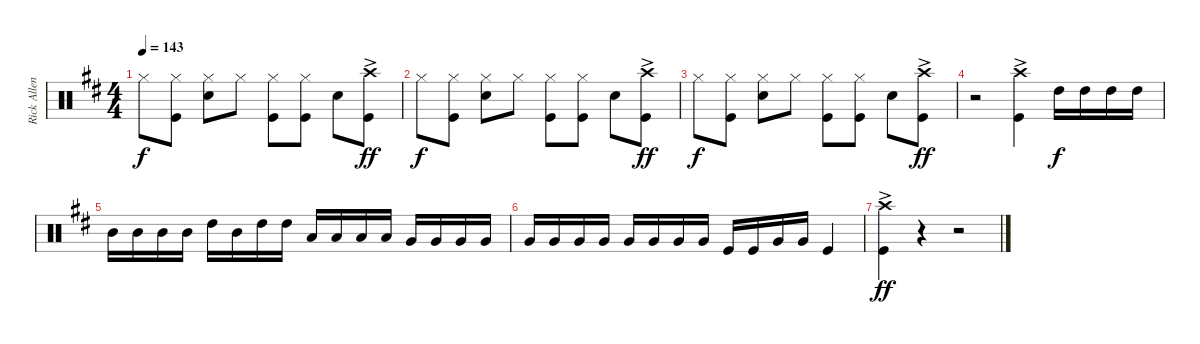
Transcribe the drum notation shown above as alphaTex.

\track ("Rick Allen" "Rick Allen") {instrument percussion}
\staff {score}
\articulation defaults
\ts (4 4)
\tempo 143
\clef neutral
\ks d "Hi-Hat (closed)".8{dy f}
("Hi-Hat (closed)" "Kick (hit)").8 ("Hi-Hat (closed)" "Snare (hit) 2").8 "Hi-Hat (closed)".8 ("Hi-Hat (closed)" "Kick (hit)").8 ("Hi-Hat (closed)" "Kick (hit)").8 "Snare (hit) 2".8 ("Crash high (hit)"{ac} "Kick (hit)").8{dy ff} |
"Hi-Hat (closed)".8{dy f} ("Hi-Hat (closed)" "Kick (hit)").8 ("Hi-Hat (closed)" "Snare (hit) 2").8 "Hi-Hat (closed)".8 ("Hi-Hat (closed)" "Kick (hit)").8 ("Hi-Hat (closed)" "Kick (hit)").8 "Snare (hit) 2".8 ("Crash high (hit)"{ac} "Kick (hit)").8{dy ff} |
"Hi-Hat (closed)".8{dy f} ("Hi-Hat (closed)" "Kick (hit)").8 ("Hi-Hat (closed)" "Snare (hit) 2").8 "Hi-Hat (closed)".8 ("Hi-Hat (closed)" "Kick (hit)").8 ("Hi-Hat (closed)" "Kick (hit)").8 "Snare (hit) 2".8 ("Crash high (hit)"{ac} "Kick (hit)").8{dy ff} |
r.2 ("Crash high (hit)"{ac} "Kick (hit)").4 "High Tom (hit)".16{dy f} "High Tom (hit)".16 "High Tom (hit)".16 "High Tom (hit)".16 |
"Mid Tom (hit)".16 "Mid Tom (hit)".16 "Mid Tom (hit)".16 "Mid Tom (hit)".16 "High Tom (hit)".16 "Mid Tom (hit)".16 "High Tom (hit)".16 "High Tom (hit)".16 "Low Tom (hit)".16 "Low Tom (hit)".16 "Low Tom (hit)".16 "Low Tom (hit)".16 "Very Low Tom (hit)".16 "Very Low Tom (hit)".16 "Very Low Tom (hit)".16 "Very Low Tom (hit)".16 |
"Very Low Tom (hit)".16 "Very Low Tom (hit)".16 "Very Low Tom (hit)".16 "Very Low Tom (hit)".16 "Very Low Tom (hit)".16 "Very Low Tom (hit)".16 "Very Low Tom (hit)".16 "Very Low Tom (hit)".16 "Kick (hit)".16 "Kick (hit)".16 "Very Low Tom (hit)".16 "Very Low Tom (hit)".16 "Kick (hit)".4 |
("Crash high (hit)"{ac} "Kick (hit)").4{dy ff} r.4 r.2
